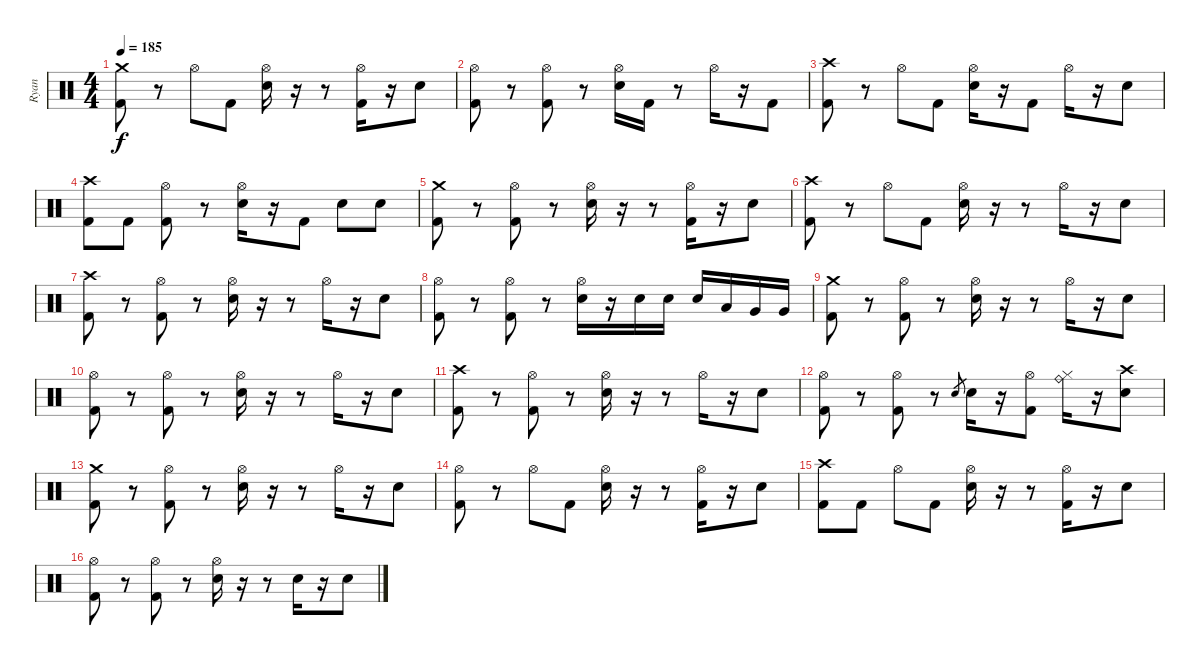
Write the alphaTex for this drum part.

\track ("Ryan" "Ryan") {instrument percussion}
\staff {score}
\articulation defaults
\ts (4 4)
\tempo 185
\clef neutral
\ks c
("Crash medium (hit)" "Kick (hit) 2").8{dy f} r.8 "Hi-Hat (open)".8 "Kick (hit) 2".8 ("Hi-Hat (open)" "Electric Snare (hit)").16 r.16 r.8 ("Hi-Hat (open)" "Kick (hit) 2").16 r.16 "Electric Snare (hit)".8 |
("Hi-Hat (open)" "Kick (hit) 2").8 r.8 ("Hi-Hat (open)" "Kick (hit) 2").8 r.8 ("Hi-Hat (open)" "Electric Snare (hit)").16 "Kick (hit) 2".16 r.8 "Hi-Hat (open)".16 r.16 "Kick (hit) 2".8 |
("Crash high (hit)" "Kick (hit) 2").8 r.8 "Hi-Hat (open)".8 "Kick (hit) 2".8 ("Hi-Hat (open)" "Electric Snare (hit)").16 r.16 "Kick (hit) 2".8 "Hi-Hat (open)".16 r.16 "Electric Snare (hit)".8 |
("Crash high (hit)" "Kick (hit) 2").8 "Kick (hit) 2".8 ("Hi-Hat (open)" "Kick (hit) 2").8 r.8 ("Hi-Hat (open)" "Electric Snare (hit)").16 r.16 "Kick (hit) 2".8 "Electric Snare (hit)".8 "Electric Snare (hit)".8 |
("Crash medium (hit)" "Kick (hit) 2").8 r.8 ("Hi-Hat (open)" "Kick (hit) 2").8 r.8 ("Hi-Hat (open)" "Electric Snare (hit)").16 r.16 r.8 ("Hi-Hat (open)" "Kick (hit) 2").16 r.16 "Electric Snare (hit)".8 |
("Crash high (hit)" "Kick (hit) 2").8 r.8 "Hi-Hat (open)".8 "Kick (hit) 2".8 ("Hi-Hat (open)" "Electric Snare (hit)").16 r.16 r.8 "Hi-Hat (open)".16 r.16 "Electric Snare (hit)".8 |
("Crash high (hit)" "Kick (hit) 2").8 r.8 ("Hi-Hat (open)" "Kick (hit) 2").8 r.8 ("Hi-Hat (open)" "Electric Snare (hit)").16 r.16 r.8 "Hi-Hat (open)".16 r.16 "Electric Snare (hit)".8 |
("Hi-Hat (open)" "Kick (hit) 2").8 r.8 ("Hi-Hat (open)" "Kick (hit) 2").8 r.8 ("Hi-Hat (open)" "Electric Snare (hit)").16 r.16 "Electric Snare (hit)".16 "Electric Snare (hit)".16 "Electric Snare (hit)".16 "Low Floor Tom (hit)".16 "Very Low Tom (hit)".16 "Very Low Tom (hit)".16 |
("Crash medium (hit)" "Kick (hit) 2").8 r.8 ("Hi-Hat (open)" "Kick (hit) 2").8 r.8 ("Hi-Hat (open)" "Electric Snare (hit)").16 r.16 r.8 "Hi-Hat (open)".16 r.16 "Electric Snare (hit)".8 |
("Hi-Hat (open)" "Kick (hit) 2").8 r.8 ("Hi-Hat (open)" "Kick (hit) 2").8 r.8 ("Hi-Hat (open)" "Electric Snare (hit)").16 r.16 r.8 "Hi-Hat (open)".16 r.16 "Electric Snare (hit)".8 |
("Crash high (hit)" "Kick (hit) 2").8 r.8 ("Hi-Hat (open)" "Kick (hit) 2").8 r.8 ("Hi-Hat (open)" "Electric Snare (hit)").16 r.16 r.8 "Hi-Hat (open)".16 r.16 "Electric Snare (hit)".8 |
("Hi-Hat (open)" "Kick (hit) 2").8 r.8 ("Hi-Hat (open)" "Kick (hit) 2").8 r.8 "Electric Snare (hit)".8{gr} "Electric Snare (hit)".16 r.16 ("Hi-Hat (open)" "Kick (hit) 2").8 ("Ride (bell)" "Hi-Hat (closed)").16 r.16 ("Crash high (hit)" "Electric Snare (hit)").8 |
("Crash medium (hit)" "Kick (hit) 2").8 r.8 ("Hi-Hat (open)" "Kick (hit) 2").8 r.8 ("Hi-Hat (open)" "Electric Snare (hit)").16 r.16 r.8 "Hi-Hat (open)".16 r.16 "Electric Snare (hit)".8 |
("Hi-Hat (open)" "Kick (hit) 2").8 r.8 "Hi-Hat (open)".8 "Kick (hit) 2".8 ("Hi-Hat (open)" "Electric Snare (hit)").16 r.16 r.8 ("Hi-Hat (open)" "Kick (hit) 2").16 r.16 "Electric Snare (hit)".8 |
("Crash high (hit)" "Kick (hit) 2").8 "Kick (hit) 2".8 "Hi-Hat (open)".8 "Kick (hit) 2".8 ("Hi-Hat (open)" "Electric Snare (hit)").16 r.16 r.8 ("Hi-Hat (open)" "Kick (hit) 2").16 r.16 "Electric Snare (hit)".8 |
("Hi-Hat (open)" "Kick (hit) 2").8 r.8 ("Hi-Hat (open)" "Kick (hit) 2").8 r.8 ("Hi-Hat (open)" "Electric Snare (hit)").16 r.16 r.8 "Electric Snare (hit)".16 r.16 "Electric Snare (hit)".8
